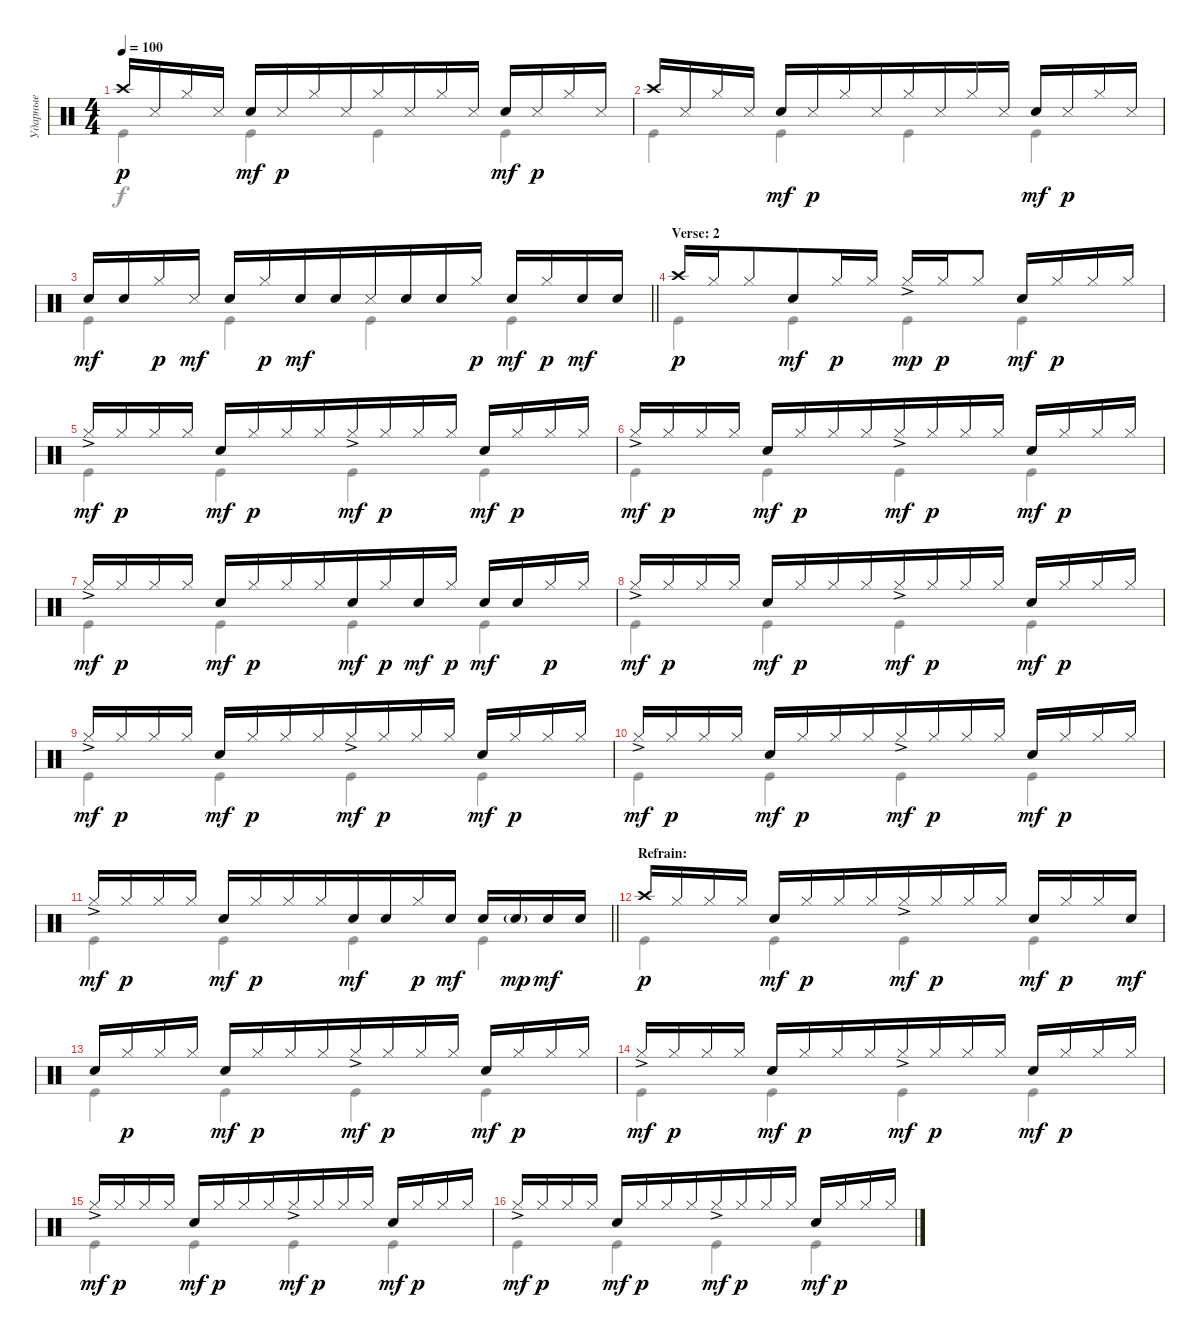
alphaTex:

\track ("Ударные" "Ударные") {instrument percussion}
\staff {score}
\articulation defaults
\voice
\ts (4 4)
\tempo 100
\clef neutral
\ks c "Crash high (hit)".16{dy p} "Snare (side stick) 3".16{beam merge} "Hi-Hat (closed)".16 "Snare (side stick) 3".16 "Snare (hit) 2".16{dy mf} "Snare (side stick) 3".16{dy p} "Hi-Hat (closed)".16 "Snare (side stick) 3".16{beam merge} "Hi-Hat (closed)".16 "Snare (side stick) 3".16 "Hi-Hat (closed)".16 "Snare (side stick) 3".16 "Snare (hit) 2".16{dy mf} "Snare (side stick) 3".16{dy p} "Hi-Hat (closed)".16 "Snare (side stick) 3".16
|
"Crash high (hit)".16 "Snare (side stick) 3".16{beam merge} "Hi-Hat (closed)".16 "Snare (side stick) 3".16 "Snare (hit) 2".16{dy mf} "Snare (side stick) 3".16{dy p} "Hi-Hat (closed)".16 "Snare (side stick) 3".16{beam merge} "Hi-Hat (closed)".16 "Snare (side stick) 3".16 "Hi-Hat (closed)".16 "Snare (side stick) 3".16 "Snare (hit) 2".16{dy mf} "Snare (side stick) 3".16{dy p} "Hi-Hat (closed)".16 "Snare (side stick) 3".16 |
\barLineRight lightlight "Snare (hit) 2".16{dy mf} "Snare (hit) 2".16{beam merge} "Hi-Hat (closed)".16{dy p} "Snare (side stick) 3".16{dy mf} "Snare (hit) 2".16 "Hi-Hat (closed)".16{dy p} "Snare (hit) 2".16{dy mf} "Snare (hit) 2".16{beam merge} "Snare (side stick) 3".16 "Snare (hit) 2".16 "Snare (hit) 2".16 "Hi-Hat (closed)".16{dy p} "Snare (hit) 2".16{dy mf} "Hi-Hat (closed)".16{dy p} "Snare (hit) 2".16{dy mf} "Snare (hit) 2".16
|
\section ("" "Verse: 2")
"Crash high (hit)".16{dy p} "Hi-Hat (closed)".16{beam merge} "Hi-Hat (closed)".8{beam merge} "Snare (hit) 2".8{dy mf} "Hi-Hat (closed)".16{dy p} "Hi-Hat (closed)".16 "Hi-Hat (closed)"{ac}.16{dy mp beam merge} "Hi-Hat (closed)".16{dy p} "Hi-Hat (closed)".8 "Snare (hit) 2".16{dy mf} "Hi-Hat (closed)".16{dy p} "Hi-Hat (closed)".16 "Hi-Hat (closed)".16 |
"Hi-Hat (closed)"{ac}.16{dy mf} "Hi-Hat (closed)".16{dy p} "Hi-Hat (closed)".16 "Hi-Hat (closed)".16 "Snare (hit) 2".16{dy mf} "Hi-Hat (closed)".16{dy p} "Hi-Hat (closed)".16 "Hi-Hat (closed)".16{beam merge} "Hi-Hat (closed)"{ac}.16{dy mf} "Hi-Hat (closed)".16{dy p} "Hi-Hat (closed)".16 "Hi-Hat (closed)".16 "Snare (hit) 2".16{dy mf} "Hi-Hat (closed)".16{dy p} "Hi-Hat (closed)".16 "Hi-Hat (closed)".16 |
"Hi-Hat (closed)"{ac}.16{dy mf} "Hi-Hat (closed)".16{dy p} "Hi-Hat (closed)".16 "Hi-Hat (closed)".16 "Snare (hit) 2".16{dy mf} "Hi-Hat (closed)".16{dy p} "Hi-Hat (closed)".16 "Hi-Hat (closed)".16{beam merge} "Hi-Hat (closed)"{ac}.16{dy mf} "Hi-Hat (closed)".16{dy p} "Hi-Hat (closed)".16 "Hi-Hat (closed)".16 "Snare (hit) 2".16{dy mf} "Hi-Hat (closed)".16{dy p} "Hi-Hat (closed)".16 "Hi-Hat (closed)".16 |
"Hi-Hat (closed)"{ac}.16{dy mf} "Hi-Hat (closed)".16{dy p} "Hi-Hat (closed)".16 "Hi-Hat (closed)".16 "Snare (hit) 2".16{dy mf} "Hi-Hat (closed)".16{dy p} "Hi-Hat (closed)".16 "Hi-Hat (closed)".16{beam merge} "Snare (hit) 2".16{dy mf} "Hi-Hat (closed)".16{dy p} "Snare (hit) 2".16{dy mf} "Hi-Hat (closed)".16{dy p} "Snare (hit) 2".16{dy mf} "Snare (hit) 2".16 "Hi-Hat (closed)".16{dy p} "Hi-Hat (closed)".16 |
"Hi-Hat (closed)"{ac}.16{dy mf} "Hi-Hat (closed)".16{dy p} "Hi-Hat (closed)".16 "Hi-Hat (closed)".16 "Snare (hit) 2".16{dy mf} "Hi-Hat (closed)".16{dy p} "Hi-Hat (closed)".16 "Hi-Hat (closed)".16{beam merge} "Hi-Hat (closed)"{ac}.16{dy mf} "Hi-Hat (closed)".16{dy p} "Hi-Hat (closed)".16 "Hi-Hat (closed)".16 "Snare (hit) 2".16{dy mf} "Hi-Hat (closed)".16{dy p} "Hi-Hat (closed)".16 "Hi-Hat (closed)".16 |
"Hi-Hat (closed)"{ac}.16{dy mf} "Hi-Hat (closed)".16{dy p} "Hi-Hat (closed)".16 "Hi-Hat (closed)".16 "Snare (hit) 2".16{dy mf} "Hi-Hat (closed)".16{dy p} "Hi-Hat (closed)".16 "Hi-Hat (closed)".16{beam merge} "Hi-Hat (closed)"{ac}.16{dy mf} "Hi-Hat (closed)".16{dy p} "Hi-Hat (closed)".16 "Hi-Hat (closed)".16 "Snare (hit) 2".16{dy mf} "Hi-Hat (closed)".16{dy p} "Hi-Hat (closed)".16 "Hi-Hat (closed)".16 |
"Hi-Hat (closed)"{ac}.16{dy mf} "Hi-Hat (closed)".16{dy p} "Hi-Hat (closed)".16 "Hi-Hat (closed)".16 "Snare (hit) 2".16{dy mf} "Hi-Hat (closed)".16{dy p} "Hi-Hat (closed)".16 "Hi-Hat (closed)".16{beam merge} "Hi-Hat (closed)"{ac}.16{dy mf} "Hi-Hat (closed)".16{dy p} "Hi-Hat (closed)".16 "Hi-Hat (closed)".16 "Snare (hit) 2".16{dy mf} "Hi-Hat (closed)".16{dy p} "Hi-Hat (closed)".16 "Hi-Hat (closed)".16 |
\barLineRight lightlight "Hi-Hat (closed)"{ac}.16{dy mf} "Hi-Hat (closed)".16{dy p} "Hi-Hat (closed)".16 "Hi-Hat (closed)".16 "Snare (hit) 2".16{dy mf} "Hi-Hat (closed)".16{dy p} "Hi-Hat (closed)".16 "Hi-Hat (closed)".16{beam merge} "Snare (hit) 2".16{dy mf} "Snare (hit) 2".16 "Hi-Hat (closed)".16{dy p} "Snare (hit) 2".16{dy mf} "Snare (hit) 2".16 "Snare (hit) 2"{g}.16{dy mp} "Snare (hit) 2".16{dy mf} "Snare (hit) 2".16
|
\section ("" "Refrain:")
"Crash high (hit)".16{dy p} "Hi-Hat (closed)".16 "Hi-Hat (closed)".16 "Hi-Hat (closed)".16 "Snare (hit) 2".16{dy mf} "Hi-Hat (closed)".16{dy p} "Hi-Hat (closed)".16 "Hi-Hat (closed)".16{beam merge} "Hi-Hat (closed)"{ac}.16{dy mf} "Hi-Hat (closed)".16{dy p} "Hi-Hat (closed)".16 "Hi-Hat (closed)".16 "Snare (hit) 2".16{dy mf} "Hi-Hat (closed)".16{dy p} "Hi-Hat (closed)".16 "Snare (hit) 2".16{dy mf} |
"Snare (hit) 2".16 "Hi-Hat (closed)".16{dy p} "Hi-Hat (closed)".16 "Hi-Hat (closed)".16 "Snare (hit) 2".16{dy mf} "Hi-Hat (closed)".16{dy p} "Hi-Hat (closed)".16 "Hi-Hat (closed)".16{beam merge} "Hi-Hat (closed)"{ac}.16{dy mf} "Hi-Hat (closed)".16{dy p} "Hi-Hat (closed)".16 "Hi-Hat (closed)".16 "Snare (hit) 2".16{dy mf} "Hi-Hat (closed)".16{dy p} "Hi-Hat (closed)".16 "Hi-Hat (closed)".16 |
"Hi-Hat (closed)"{ac}.16{dy mf} "Hi-Hat (closed)".16{dy p} "Hi-Hat (closed)".16 "Hi-Hat (closed)".16 "Snare (hit) 2".16{dy mf} "Hi-Hat (closed)".16{dy p} "Hi-Hat (closed)".16 "Hi-Hat (closed)".16{beam merge} "Hi-Hat (closed)"{ac}.16{dy mf} "Hi-Hat (closed)".16{dy p} "Hi-Hat (closed)".16 "Hi-Hat (closed)".16 "Snare (hit) 2".16{dy mf} "Hi-Hat (closed)".16{dy p} "Hi-Hat (closed)".16 "Hi-Hat (closed)".16 |
"Hi-Hat (closed)"{ac}.16{dy mf} "Hi-Hat (closed)".16{dy p} "Hi-Hat (closed)".16 "Hi-Hat (closed)".16 "Snare (hit) 2".16{dy mf} "Hi-Hat (closed)".16{dy p} "Hi-Hat (closed)".16 "Hi-Hat (closed)".16{beam merge} "Hi-Hat (closed)"{ac}.16{dy mf} "Hi-Hat (closed)".16{dy p} "Hi-Hat (closed)".16 "Hi-Hat (closed)".16 "Snare (hit) 2".16{dy mf} "Hi-Hat (closed)".16{dy p} "Hi-Hat (closed)".16 "Hi-Hat (closed)".16 |
"Hi-Hat (closed)"{ac}.16{dy mf} "Hi-Hat (closed)".16{dy p} "Hi-Hat (closed)".16 "Hi-Hat (closed)".16 "Snare (hit) 2".16{dy mf} "Hi-Hat (closed)".16{dy p} "Hi-Hat (closed)".16 "Hi-Hat (closed)".16{beam merge} "Hi-Hat (closed)"{ac}.16{dy mf} "Hi-Hat (closed)".16{dy p} "Hi-Hat (closed)".16 "Hi-Hat (closed)".16 "Snare (hit) 2".16{dy mf} "Hi-Hat (closed)".16{dy p} "Hi-Hat (closed)".16 "Hi-Hat (closed)".16
\voice
\clef neutral
\ottava regular
\simile none
\ks c "Kick (hit)".4{dy f} "Kick (hit)".4 "Kick (hit)".4 "Kick (hit)".4
|
"Kick (hit)".4 "Kick (hit)".4 "Kick (hit)".4 "Kick (hit)".4 |
\barLineRight lightlight "Kick (hit)".4 "Kick (hit)".4 "Kick (hit)".4 "Kick (hit)".4
|
"Kick (hit)".4 "Kick (hit)".4 "Kick (hit)".4 "Kick (hit)".4 |
"Kick (hit)".4 "Kick (hit)".4 "Kick (hit)".4 "Kick (hit)".4 |
"Kick (hit)".4 "Kick (hit)".4 "Kick (hit)".4 "Kick (hit)".4 |
"Kick (hit)".4 "Kick (hit)".4 "Kick (hit)".4 "Kick (hit)".4 |
"Kick (hit)".4 "Kick (hit)".4 "Kick (hit)".4 "Kick (hit)".4 |
"Kick (hit)".4 "Kick (hit)".4 "Kick (hit)".4 "Kick (hit)".4 |
"Kick (hit)".4 "Kick (hit)".4 "Kick (hit)".4 "Kick (hit)".4 |
\barLineRight lightlight "Kick (hit)".4 "Kick (hit)".4 "Kick (hit)".4 "Kick (hit)".4
|
"Kick (hit)".4 "Kick (hit)".4 "Kick (hit)".4 "Kick (hit)".4 |
"Kick (hit)".4 "Kick (hit)".4 "Kick (hit)".4 "Kick (hit)".4 |
"Kick (hit)".4 "Kick (hit)".4 "Kick (hit)".4 "Kick (hit)".4 |
"Kick (hit)".4 "Kick (hit)".4 "Kick (hit)".4 "Kick (hit)".4 |
"Kick (hit)".4 "Kick (hit)".4 "Kick (hit)".4 "Kick (hit)".4
